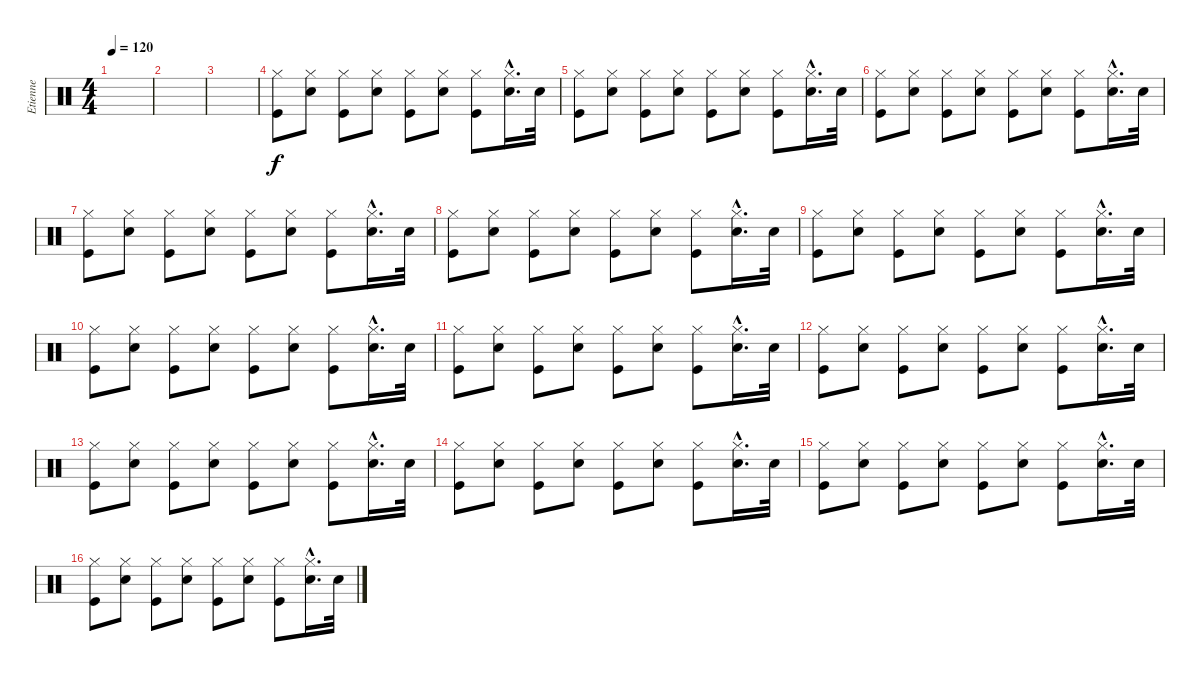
\track ("Etienne" "Etienne") {instrument percussion}
\staff {score}
\articulation defaults
\ts (4 4)
\tempo 120
\clef neutral
\ks c
|
|
|
("Hi-Hat (closed)" "Kick (hit)").8 ("Hi-Hat (closed)" "Snare (hit) 2").8 ("Hi-Hat (closed)" "Kick (hit)").8 ("Hi-Hat (closed)" "Snare (hit) 2").8 ("Hi-Hat (closed)" "Kick (hit)").8 ("Hi-Hat (closed)" "Snare (hit) 2").8 ("Hi-Hat (closed)" "Kick (hit)").8 ("Hi-Hat (closed)"{hac} "Snare (hit) 2"{hac}).16{d} "Snare (hit) 2".32 |
("Hi-Hat (closed)" "Kick (hit)").8 ("Hi-Hat (closed)" "Snare (hit) 2").8 ("Hi-Hat (closed)" "Kick (hit)").8 ("Hi-Hat (closed)" "Snare (hit) 2").8 ("Hi-Hat (closed)" "Kick (hit)").8 ("Hi-Hat (closed)" "Snare (hit) 2").8 ("Hi-Hat (closed)" "Kick (hit)").8 ("Hi-Hat (closed)"{hac} "Snare (hit) 2"{hac}).16{d} "Snare (hit) 2".32 |
("Hi-Hat (closed)" "Kick (hit)").8 ("Hi-Hat (closed)" "Snare (hit) 2").8 ("Hi-Hat (closed)" "Kick (hit)").8 ("Hi-Hat (closed)" "Snare (hit) 2").8 ("Hi-Hat (closed)" "Kick (hit)").8 ("Hi-Hat (closed)" "Snare (hit) 2").8 ("Hi-Hat (closed)" "Kick (hit)").8 ("Hi-Hat (closed)"{hac} "Snare (hit) 2"{hac}).16{d} "Snare (hit) 2".32 |
("Hi-Hat (closed)" "Kick (hit)").8 ("Hi-Hat (closed)" "Snare (hit) 2").8 ("Hi-Hat (closed)" "Kick (hit)").8 ("Hi-Hat (closed)" "Snare (hit) 2").8 ("Hi-Hat (closed)" "Kick (hit)").8 ("Hi-Hat (closed)" "Snare (hit) 2").8 ("Hi-Hat (closed)" "Kick (hit)").8 ("Hi-Hat (closed)"{hac} "Snare (hit) 2"{hac}).16{d} "Snare (hit) 2".32 |
("Hi-Hat (closed)" "Kick (hit)").8 ("Hi-Hat (closed)" "Snare (hit) 2").8 ("Hi-Hat (closed)" "Kick (hit)").8 ("Hi-Hat (closed)" "Snare (hit) 2").8 ("Hi-Hat (closed)" "Kick (hit)").8 ("Hi-Hat (closed)" "Snare (hit) 2").8 ("Hi-Hat (closed)" "Kick (hit)").8 ("Hi-Hat (closed)"{hac} "Snare (hit) 2"{hac}).16{d} "Snare (hit) 2".32 |
("Hi-Hat (closed)" "Kick (hit)").8 ("Hi-Hat (closed)" "Snare (hit) 2").8 ("Hi-Hat (closed)" "Kick (hit)").8 ("Hi-Hat (closed)" "Snare (hit) 2").8 ("Hi-Hat (closed)" "Kick (hit)").8 ("Hi-Hat (closed)" "Snare (hit) 2").8 ("Hi-Hat (closed)" "Kick (hit)").8 ("Hi-Hat (closed)"{hac} "Snare (hit) 2"{hac}).16{d} "Snare (hit) 2".32 |
("Hi-Hat (closed)" "Kick (hit)").8 ("Hi-Hat (closed)" "Snare (hit) 2").8 ("Hi-Hat (closed)" "Kick (hit)").8 ("Hi-Hat (closed)" "Snare (hit) 2").8 ("Hi-Hat (closed)" "Kick (hit)").8 ("Hi-Hat (closed)" "Snare (hit) 2").8 ("Hi-Hat (closed)" "Kick (hit)").8 ("Hi-Hat (closed)"{hac} "Snare (hit) 2"{hac}).16{d} "Snare (hit) 2".32 |
("Hi-Hat (closed)" "Kick (hit)").8 ("Hi-Hat (closed)" "Snare (hit) 2").8 ("Hi-Hat (closed)" "Kick (hit)").8 ("Hi-Hat (closed)" "Snare (hit) 2").8 ("Hi-Hat (closed)" "Kick (hit)").8 ("Hi-Hat (closed)" "Snare (hit) 2").8 ("Hi-Hat (closed)" "Kick (hit)").8 ("Hi-Hat (closed)"{hac} "Snare (hit) 2"{hac}).16{d} "Snare (hit) 2".32 |
("Hi-Hat (closed)" "Kick (hit)").8 ("Hi-Hat (closed)" "Snare (hit) 2").8 ("Hi-Hat (closed)" "Kick (hit)").8 ("Hi-Hat (closed)" "Snare (hit) 2").8 ("Hi-Hat (closed)" "Kick (hit)").8 ("Hi-Hat (closed)" "Snare (hit) 2").8 ("Hi-Hat (closed)" "Kick (hit)").8 ("Hi-Hat (closed)"{hac} "Snare (hit) 2"{hac}).16{d} "Snare (hit) 2".32 |
("Hi-Hat (closed)" "Kick (hit)").8 ("Hi-Hat (closed)" "Snare (hit) 2").8 ("Hi-Hat (closed)" "Kick (hit)").8 ("Hi-Hat (closed)" "Snare (hit) 2").8 ("Hi-Hat (closed)" "Kick (hit)").8 ("Hi-Hat (closed)" "Snare (hit) 2").8 ("Hi-Hat (closed)" "Kick (hit)").8 ("Hi-Hat (closed)"{hac} "Snare (hit) 2"{hac}).16{d} "Snare (hit) 2".32 |
("Hi-Hat (closed)" "Kick (hit)").8 ("Hi-Hat (closed)" "Snare (hit) 2").8 ("Hi-Hat (closed)" "Kick (hit)").8 ("Hi-Hat (closed)" "Snare (hit) 2").8 ("Hi-Hat (closed)" "Kick (hit)").8 ("Hi-Hat (closed)" "Snare (hit) 2").8 ("Hi-Hat (closed)" "Kick (hit)").8 ("Hi-Hat (closed)"{hac} "Snare (hit) 2"{hac}).16{d} "Snare (hit) 2".32 |
("Hi-Hat (closed)" "Kick (hit)").8 ("Hi-Hat (closed)" "Snare (hit) 2").8 ("Hi-Hat (closed)" "Kick (hit)").8 ("Hi-Hat (closed)" "Snare (hit) 2").8 ("Hi-Hat (closed)" "Kick (hit)").8 ("Hi-Hat (closed)" "Snare (hit) 2").8 ("Hi-Hat (closed)" "Kick (hit)").8 ("Hi-Hat (closed)"{hac} "Snare (hit) 2"{hac}).16{d} "Snare (hit) 2".32 |
("Hi-Hat (closed)" "Kick (hit)").8 ("Hi-Hat (closed)" "Snare (hit) 2").8 ("Hi-Hat (closed)" "Kick (hit)").8 ("Hi-Hat (closed)" "Snare (hit) 2").8 ("Hi-Hat (closed)" "Kick (hit)").8 ("Hi-Hat (closed)" "Snare (hit) 2").8 ("Hi-Hat (closed)" "Kick (hit)").8 ("Hi-Hat (closed)"{hac} "Snare (hit) 2"{hac}).16{d} "Snare (hit) 2".32
